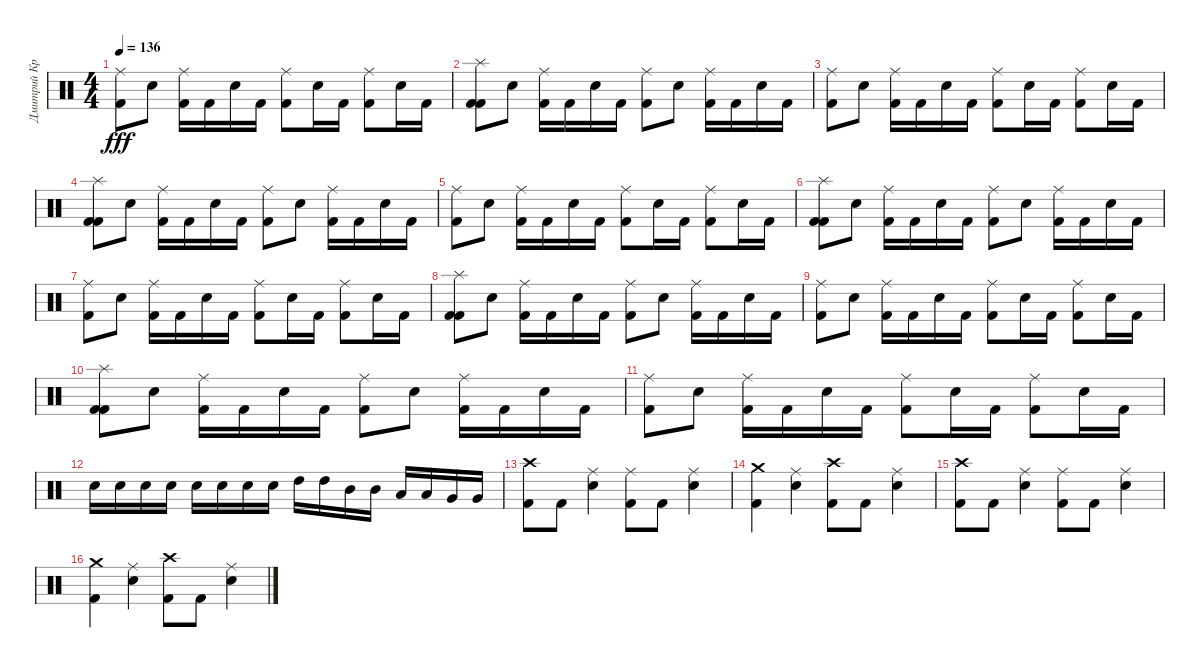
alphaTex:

\track ("Дмитрий Кривенков" "Дмитрий Кр") {instrument percussion}
\staff {score}
\articulation defaults
\ts (4 4)
\tempo 136
\clef neutral
\ks c
("Ride (middle)" "Kick (hit) 2").8{dy fff} "Electric Snare (hit)".8 ("Ride (middle)" "Kick (hit) 2").16 "Kick (hit) 2".16 "Electric Snare (hit)".16 "Kick (hit) 2".16 ("Ride (middle)" "Kick (hit) 2").8 "Electric Snare (hit)".16 "Kick (hit) 2".16 ("Ride (middle)" "Kick (hit) 2").8 "Electric Snare (hit)".16 "Kick (hit) 2".16 |
("Splash (hit)" "Kick (hit) 2" "Kick (hit) 2").8 "Electric Snare (hit)".8 ("Kick (hit) 2" "Ride (middle)").16 "Kick (hit) 2".16 "Electric Snare (hit)".16 "Kick (hit) 2".16 ("Kick (hit) 2" "Ride (middle)").8 "Electric Snare (hit)".8 ("Ride (middle)" "Kick (hit) 2").16 "Kick (hit) 2".16 "Electric Snare (hit)".16 "Kick (hit) 2".16 |
("Ride (middle)" "Kick (hit) 2").8 "Electric Snare (hit)".8 ("Ride (middle)" "Kick (hit) 2").16 "Kick (hit) 2".16 "Electric Snare (hit)".16 "Kick (hit) 2".16 ("Kick (hit) 2" "Ride (middle)").8 "Electric Snare (hit)".16 "Kick (hit) 2".16 ("Ride (middle)" "Kick (hit) 2").8 "Electric Snare (hit)".16 "Kick (hit) 2".16 |
("Kick (hit) 2" "Kick (hit) 2" "Splash (hit)").8 "Electric Snare (hit)".8 ("Ride (middle)" "Kick (hit) 2").16 "Kick (hit) 2".16 "Electric Snare (hit)".16 "Kick (hit) 2".16 ("Ride (middle)" "Kick (hit) 2").8 "Electric Snare (hit)".8 ("Ride (middle)" "Kick (hit) 2").16 "Kick (hit) 2".16 "Electric Snare (hit)".16 "Kick (hit) 2".16 |
("Ride (middle)" "Kick (hit) 2").8 "Electric Snare (hit)".8 ("Ride (middle)" "Kick (hit) 2").16 "Kick (hit) 2".16 "Electric Snare (hit)".16 "Kick (hit) 2".16 ("Ride (middle)" "Kick (hit) 2").8 "Electric Snare (hit)".16 "Kick (hit) 2".16 ("Ride (middle)" "Kick (hit) 2").8 "Electric Snare (hit)".16 "Kick (hit) 2".16 |
("Splash (hit)" "Kick (hit) 2" "Kick (hit) 2").8 "Electric Snare (hit)".8 ("Kick (hit) 2" "Ride (middle)").16 "Kick (hit) 2".16 "Electric Snare (hit)".16 "Kick (hit) 2".16 ("Kick (hit) 2" "Ride (middle)").8 "Electric Snare (hit)".8 ("Ride (middle)" "Kick (hit) 2").16 "Kick (hit) 2".16 "Electric Snare (hit)".16 "Kick (hit) 2".16 |
("Ride (middle)" "Kick (hit) 2").8 "Electric Snare (hit)".8 ("Ride (middle)" "Kick (hit) 2").16 "Kick (hit) 2".16 "Electric Snare (hit)".16 "Kick (hit) 2".16 ("Kick (hit) 2" "Ride (middle)").8 "Electric Snare (hit)".16 "Kick (hit) 2".16 ("Ride (middle)" "Kick (hit) 2").8 "Electric Snare (hit)".16 "Kick (hit) 2".16 |
("Kick (hit) 2" "Kick (hit) 2" "Splash (hit)").8 "Electric Snare (hit)".8 ("Ride (middle)" "Kick (hit) 2").16 "Kick (hit) 2".16 "Electric Snare (hit)".16 "Kick (hit) 2".16 ("Ride (middle)" "Kick (hit) 2").8 "Electric Snare (hit)".8 ("Ride (middle)" "Kick (hit) 2").16 "Kick (hit) 2".16 "Electric Snare (hit)".16 "Kick (hit) 2".16 |
("Ride (middle)" "Kick (hit) 2").8 "Electric Snare (hit)".8 ("Ride (middle)" "Kick (hit) 2").16 "Kick (hit) 2".16 "Electric Snare (hit)".16 "Kick (hit) 2".16 ("Ride (middle)" "Kick (hit) 2").8 "Electric Snare (hit)".16 "Kick (hit) 2".16 ("Ride (middle)" "Kick (hit) 2").8 "Electric Snare (hit)".16 "Kick (hit) 2".16 |
("Kick (hit) 2" "Kick (hit) 2" "Splash (hit)").8 "Electric Snare (hit)".8 ("Ride (middle)" "Kick (hit) 2").16 "Kick (hit) 2".16 "Electric Snare (hit)".16 "Kick (hit) 2".16 ("Ride (middle)" "Kick (hit) 2").8 "Electric Snare (hit)".8 ("Ride (middle)" "Kick (hit) 2").16 "Kick (hit) 2".16 "Electric Snare (hit)".16 "Kick (hit) 2".16 |
("Ride (middle)" "Kick (hit) 2").8 "Electric Snare (hit)".8 ("Ride (middle)" "Kick (hit) 2").16 "Kick (hit) 2".16 "Electric Snare (hit)".16 "Kick (hit) 2".16 ("Ride (middle)" "Kick (hit) 2").8 "Electric Snare (hit)".16 "Kick (hit) 2".16 ("Ride (middle)" "Kick (hit) 2").8 "Electric Snare (hit)".16 "Kick (hit) 2".16 |
"Electric Snare (hit)".16 "Electric Snare (hit)".16 "Electric Snare (hit)".16 "Electric Snare (hit)".16 "Electric Snare (hit)".16 "Electric Snare (hit)".16 "Electric Snare (hit)".16 "Electric Snare (hit)".16 "High Tom (hit)".16 "High Tom (hit)".16 "Mid Tom (hit)".16 "Mid Tom (hit)".16 "Low Tom (hit)".16 "Low Tom (hit)".16 "Very Low Tom (hit)".16 "Very Low Tom (hit)".16 |
("Crash high (hit)" "Kick (hit) 2").8 "Kick (hit) 2".8 ("Ride (middle)" "Electric Snare (hit)").4 ("Ride (middle)" "Kick (hit) 2").8 "Kick (hit) 2".8 ("Ride (middle)" "Electric Snare (hit)").4 |
("Crash medium (hit)" "Kick (hit) 2").4 ("Ride (middle)" "Electric Snare (hit)").4 ("Crash high (hit)" "Kick (hit) 2").8 "Kick (hit) 2".8 ("Ride (middle)" "Electric Snare (hit)").4 |
("Crash high (hit)" "Kick (hit) 2").8 "Kick (hit) 2".8 ("Ride (middle)" "Electric Snare (hit)").4 ("Ride (middle)" "Kick (hit) 2").8 "Kick (hit) 2".8 ("Ride (middle)" "Electric Snare (hit)").4 |
("Kick (hit) 2" "Crash medium (hit)").4 ("Electric Snare (hit)" "Ride (middle)").4 ("Kick (hit) 2" "Crash high (hit)").8 "Kick (hit) 2".8 ("Electric Snare (hit)" "Ride (middle)").4
